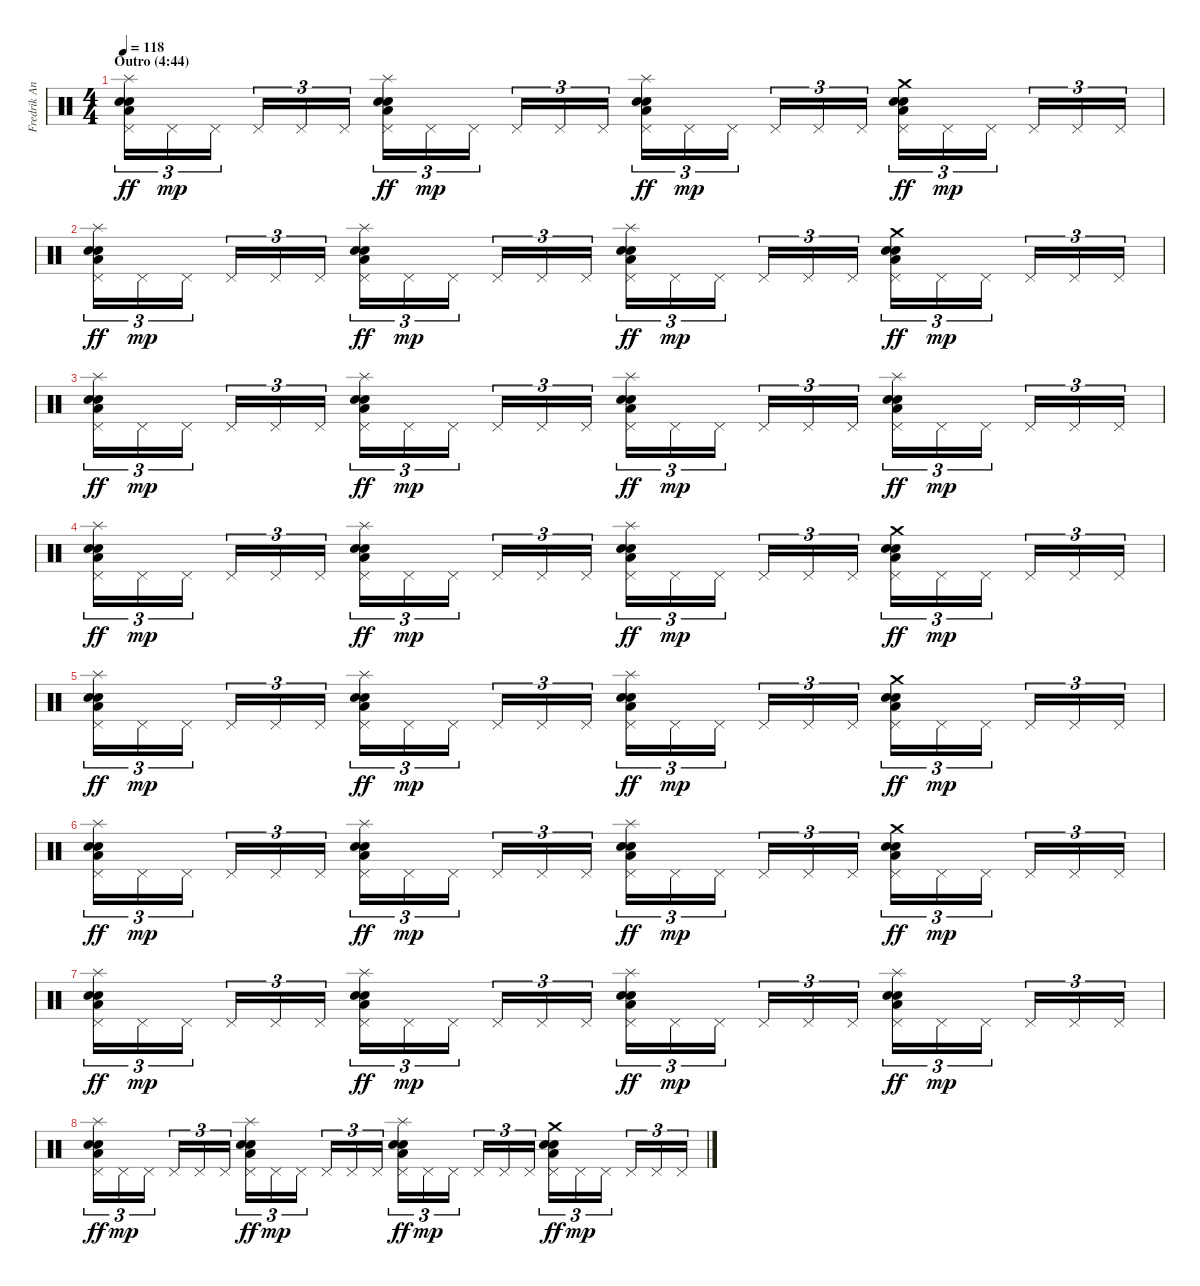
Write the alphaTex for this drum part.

\track ("Fredrik Andersson " "Fredrik An") {instrument percussion}
\staff {score}
\articulation defaults
\ts (4 4)
\section ("" "Outro (4:44)")
\tempo 118
\clef neutral
\ks c
("Splash (hit)" "Pedal Hi-Hat (hit)" "Electric Snare (hit)" "Snare (hit) 2" "Low Floor Tom (hit)").16{tu (3 2) dy ff} "Pedal Hi-Hat (hit)".16{tu (3 2) dy mp} "Pedal Hi-Hat (hit)".16{tu (3 2) beam splitsecondary} "Pedal Hi-Hat (hit)".16{tu (3 2)} "Pedal Hi-Hat (hit)".16{tu (3 2)} "Pedal Hi-Hat (hit)".16{tu (3 2)} ("Splash (hit)" "Pedal Hi-Hat (hit)" "Electric Snare (hit)" "Snare (hit) 2" "Low Floor Tom (hit)").16{tu (3 2) dy ff} "Pedal Hi-Hat (hit)".16{tu (3 2) dy mp} "Pedal Hi-Hat (hit)".16{tu (3 2) beam splitsecondary} "Pedal Hi-Hat (hit)".16{tu (3 2)} "Pedal Hi-Hat (hit)".16{tu (3 2)} "Pedal Hi-Hat (hit)".16{tu (3 2)} ("Splash (hit)" "Pedal Hi-Hat (hit)" "Electric Snare (hit)" "Snare (hit) 2" "Low Floor Tom (hit)").16{tu (3 2) dy ff} "Pedal Hi-Hat (hit)".16{tu (3 2) dy mp} "Pedal Hi-Hat (hit)".16{tu (3 2) beam splitsecondary} "Pedal Hi-Hat (hit)".16{tu (3 2)} "Pedal Hi-Hat (hit)".16{tu (3 2)} "Pedal Hi-Hat (hit)".16{tu (3 2)} ("Crash medium (hit)" "Pedal Hi-Hat (hit)" "Electric Snare (hit)" "Snare (hit) 2" "Low Floor Tom (hit)").16{tu (3 2) dy ff} "Pedal Hi-Hat (hit)".16{tu (3 2) dy mp} "Pedal Hi-Hat (hit)".16{tu (3 2) beam splitsecondary} "Pedal Hi-Hat (hit)".16{tu (3 2)} "Pedal Hi-Hat (hit)".16{tu (3 2)} "Pedal Hi-Hat (hit)".16{tu (3 2)} |
("Splash (hit)" "Pedal Hi-Hat (hit)" "Electric Snare (hit)" "Snare (hit) 2" "Low Floor Tom (hit)").16{tu (3 2) dy ff} "Pedal Hi-Hat (hit)".16{tu (3 2) dy mp} "Pedal Hi-Hat (hit)".16{tu (3 2) beam splitsecondary} "Pedal Hi-Hat (hit)".16{tu (3 2)} "Pedal Hi-Hat (hit)".16{tu (3 2)} "Pedal Hi-Hat (hit)".16{tu (3 2)} ("Splash (hit)" "Pedal Hi-Hat (hit)" "Electric Snare (hit)" "Snare (hit) 2" "Low Floor Tom (hit)").16{tu (3 2) dy ff} "Pedal Hi-Hat (hit)".16{tu (3 2) dy mp} "Pedal Hi-Hat (hit)".16{tu (3 2) beam splitsecondary} "Pedal Hi-Hat (hit)".16{tu (3 2)} "Pedal Hi-Hat (hit)".16{tu (3 2)} "Pedal Hi-Hat (hit)".16{tu (3 2)} ("Splash (hit)" "Pedal Hi-Hat (hit)" "Electric Snare (hit)" "Snare (hit) 2" "Low Floor Tom (hit)").16{tu (3 2) dy ff} "Pedal Hi-Hat (hit)".16{tu (3 2) dy mp} "Pedal Hi-Hat (hit)".16{tu (3 2) beam splitsecondary} "Pedal Hi-Hat (hit)".16{tu (3 2)} "Pedal Hi-Hat (hit)".16{tu (3 2)} "Pedal Hi-Hat (hit)".16{tu (3 2)} ("Crash medium (hit)" "Pedal Hi-Hat (hit)" "Electric Snare (hit)" "Snare (hit) 2" "Low Floor Tom (hit)").16{tu (3 2) dy ff} "Pedal Hi-Hat (hit)".16{tu (3 2) dy mp} "Pedal Hi-Hat (hit)".16{tu (3 2) beam splitsecondary} "Pedal Hi-Hat (hit)".16{tu (3 2)} "Pedal Hi-Hat (hit)".16{tu (3 2)} "Pedal Hi-Hat (hit)".16{tu (3 2)} |
("Splash (hit)" "Pedal Hi-Hat (hit)" "Electric Snare (hit)" "Snare (hit) 2" "Low Floor Tom (hit)").16{tu (3 2) dy ff} "Pedal Hi-Hat (hit)".16{tu (3 2) dy mp} "Pedal Hi-Hat (hit)".16{tu (3 2) beam splitsecondary} "Pedal Hi-Hat (hit)".16{tu (3 2)} "Pedal Hi-Hat (hit)".16{tu (3 2)} "Pedal Hi-Hat (hit)".16{tu (3 2)} ("Splash (hit)" "Pedal Hi-Hat (hit)" "Electric Snare (hit)" "Snare (hit) 2" "Low Floor Tom (hit)").16{tu (3 2) dy ff} "Pedal Hi-Hat (hit)".16{tu (3 2) dy mp} "Pedal Hi-Hat (hit)".16{tu (3 2) beam splitsecondary} "Pedal Hi-Hat (hit)".16{tu (3 2)} "Pedal Hi-Hat (hit)".16{tu (3 2)} "Pedal Hi-Hat (hit)".16{tu (3 2)} ("Splash (hit)" "Pedal Hi-Hat (hit)" "Electric Snare (hit)" "Snare (hit) 2" "Low Floor Tom (hit)").16{tu (3 2) dy ff} "Pedal Hi-Hat (hit)".16{tu (3 2) dy mp} "Pedal Hi-Hat (hit)".16{tu (3 2) beam splitsecondary} "Pedal Hi-Hat (hit)".16{tu (3 2)} "Pedal Hi-Hat (hit)".16{tu (3 2)} "Pedal Hi-Hat (hit)".16{tu (3 2)} ("Splash (hit)" "Pedal Hi-Hat (hit)" "Electric Snare (hit)" "Snare (hit) 2" "Low Floor Tom (hit)").16{tu (3 2) dy ff} "Pedal Hi-Hat (hit)".16{tu (3 2) dy mp} "Pedal Hi-Hat (hit)".16{tu (3 2) beam splitsecondary} "Pedal Hi-Hat (hit)".16{tu (3 2)} "Pedal Hi-Hat (hit)".16{tu (3 2)} "Pedal Hi-Hat (hit)".16{tu (3 2)} |
("Splash (hit)" "Pedal Hi-Hat (hit)" "Electric Snare (hit)" "Snare (hit) 2" "Low Floor Tom (hit)").16{tu (3 2) dy ff} "Pedal Hi-Hat (hit)".16{tu (3 2) dy mp} "Pedal Hi-Hat (hit)".16{tu (3 2) beam splitsecondary} "Pedal Hi-Hat (hit)".16{tu (3 2)} "Pedal Hi-Hat (hit)".16{tu (3 2)} "Pedal Hi-Hat (hit)".16{tu (3 2)} ("Splash (hit)" "Pedal Hi-Hat (hit)" "Electric Snare (hit)" "Snare (hit) 2" "Low Floor Tom (hit)").16{tu (3 2) dy ff} "Pedal Hi-Hat (hit)".16{tu (3 2) dy mp} "Pedal Hi-Hat (hit)".16{tu (3 2) beam splitsecondary} "Pedal Hi-Hat (hit)".16{tu (3 2)} "Pedal Hi-Hat (hit)".16{tu (3 2)} "Pedal Hi-Hat (hit)".16{tu (3 2)} ("Splash (hit)" "Pedal Hi-Hat (hit)" "Electric Snare (hit)" "Snare (hit) 2" "Low Floor Tom (hit)").16{tu (3 2) dy ff} "Pedal Hi-Hat (hit)".16{tu (3 2) dy mp} "Pedal Hi-Hat (hit)".16{tu (3 2) beam splitsecondary} "Pedal Hi-Hat (hit)".16{tu (3 2)} "Pedal Hi-Hat (hit)".16{tu (3 2)} "Pedal Hi-Hat (hit)".16{tu (3 2)} ("Crash medium (hit)" "Pedal Hi-Hat (hit)" "Electric Snare (hit)" "Snare (hit) 2" "Low Floor Tom (hit)").16{tu (3 2) dy ff} "Pedal Hi-Hat (hit)".16{tu (3 2) dy mp} "Pedal Hi-Hat (hit)".16{tu (3 2) beam splitsecondary} "Pedal Hi-Hat (hit)".16{tu (3 2)} "Pedal Hi-Hat (hit)".16{tu (3 2)} "Pedal Hi-Hat (hit)".16{tu (3 2)} |
("Splash (hit)" "Pedal Hi-Hat (hit)" "Electric Snare (hit)" "Snare (hit) 2" "Low Floor Tom (hit)").16{tu (3 2) dy ff} "Pedal Hi-Hat (hit)".16{tu (3 2) dy mp} "Pedal Hi-Hat (hit)".16{tu (3 2) beam splitsecondary} "Pedal Hi-Hat (hit)".16{tu (3 2)} "Pedal Hi-Hat (hit)".16{tu (3 2)} "Pedal Hi-Hat (hit)".16{tu (3 2)} ("Splash (hit)" "Pedal Hi-Hat (hit)" "Electric Snare (hit)" "Snare (hit) 2" "Low Floor Tom (hit)").16{tu (3 2) dy ff} "Pedal Hi-Hat (hit)".16{tu (3 2) dy mp} "Pedal Hi-Hat (hit)".16{tu (3 2) beam splitsecondary} "Pedal Hi-Hat (hit)".16{tu (3 2)} "Pedal Hi-Hat (hit)".16{tu (3 2)} "Pedal Hi-Hat (hit)".16{tu (3 2)} ("Splash (hit)" "Pedal Hi-Hat (hit)" "Electric Snare (hit)" "Snare (hit) 2" "Low Floor Tom (hit)").16{tu (3 2) dy ff} "Pedal Hi-Hat (hit)".16{tu (3 2) dy mp} "Pedal Hi-Hat (hit)".16{tu (3 2) beam splitsecondary} "Pedal Hi-Hat (hit)".16{tu (3 2)} "Pedal Hi-Hat (hit)".16{tu (3 2)} "Pedal Hi-Hat (hit)".16{tu (3 2)} ("Crash medium (hit)" "Pedal Hi-Hat (hit)" "Electric Snare (hit)" "Snare (hit) 2" "Low Floor Tom (hit)").16{tu (3 2) dy ff} "Pedal Hi-Hat (hit)".16{tu (3 2) dy mp} "Pedal Hi-Hat (hit)".16{tu (3 2) beam splitsecondary} "Pedal Hi-Hat (hit)".16{tu (3 2)} "Pedal Hi-Hat (hit)".16{tu (3 2)} "Pedal Hi-Hat (hit)".16{tu (3 2)} |
("Splash (hit)" "Pedal Hi-Hat (hit)" "Electric Snare (hit)" "Snare (hit) 2" "Low Floor Tom (hit)").16{tu (3 2) dy ff} "Pedal Hi-Hat (hit)".16{tu (3 2) dy mp} "Pedal Hi-Hat (hit)".16{tu (3 2) beam splitsecondary} "Pedal Hi-Hat (hit)".16{tu (3 2)} "Pedal Hi-Hat (hit)".16{tu (3 2)} "Pedal Hi-Hat (hit)".16{tu (3 2)} ("Splash (hit)" "Pedal Hi-Hat (hit)" "Electric Snare (hit)" "Snare (hit) 2" "Low Floor Tom (hit)").16{tu (3 2) dy ff} "Pedal Hi-Hat (hit)".16{tu (3 2) dy mp} "Pedal Hi-Hat (hit)".16{tu (3 2) beam splitsecondary} "Pedal Hi-Hat (hit)".16{tu (3 2)} "Pedal Hi-Hat (hit)".16{tu (3 2)} "Pedal Hi-Hat (hit)".16{tu (3 2)} ("Splash (hit)" "Pedal Hi-Hat (hit)" "Electric Snare (hit)" "Snare (hit) 2" "Low Floor Tom (hit)").16{tu (3 2) dy ff} "Pedal Hi-Hat (hit)".16{tu (3 2) dy mp} "Pedal Hi-Hat (hit)".16{tu (3 2) beam splitsecondary} "Pedal Hi-Hat (hit)".16{tu (3 2)} "Pedal Hi-Hat (hit)".16{tu (3 2)} "Pedal Hi-Hat (hit)".16{tu (3 2)} ("Crash medium (hit)" "Pedal Hi-Hat (hit)" "Electric Snare (hit)" "Snare (hit) 2" "Low Floor Tom (hit)").16{tu (3 2) dy ff} "Pedal Hi-Hat (hit)".16{tu (3 2) dy mp} "Pedal Hi-Hat (hit)".16{tu (3 2) beam splitsecondary} "Pedal Hi-Hat (hit)".16{tu (3 2)} "Pedal Hi-Hat (hit)".16{tu (3 2)} "Pedal Hi-Hat (hit)".16{tu (3 2)} |
("Splash (hit)" "Pedal Hi-Hat (hit)" "Electric Snare (hit)" "Snare (hit) 2" "Low Floor Tom (hit)").16{tu (3 2) dy ff} "Pedal Hi-Hat (hit)".16{tu (3 2) dy mp} "Pedal Hi-Hat (hit)".16{tu (3 2) beam splitsecondary} "Pedal Hi-Hat (hit)".16{tu (3 2)} "Pedal Hi-Hat (hit)".16{tu (3 2)} "Pedal Hi-Hat (hit)".16{tu (3 2)} ("Splash (hit)" "Pedal Hi-Hat (hit)" "Electric Snare (hit)" "Snare (hit) 2" "Low Floor Tom (hit)").16{tu (3 2) dy ff} "Pedal Hi-Hat (hit)".16{tu (3 2) dy mp} "Pedal Hi-Hat (hit)".16{tu (3 2) beam splitsecondary} "Pedal Hi-Hat (hit)".16{tu (3 2)} "Pedal Hi-Hat (hit)".16{tu (3 2)} "Pedal Hi-Hat (hit)".16{tu (3 2)} ("Splash (hit)" "Pedal Hi-Hat (hit)" "Electric Snare (hit)" "Snare (hit) 2" "Low Floor Tom (hit)").16{tu (3 2) dy ff} "Pedal Hi-Hat (hit)".16{tu (3 2) dy mp} "Pedal Hi-Hat (hit)".16{tu (3 2) beam splitsecondary} "Pedal Hi-Hat (hit)".16{tu (3 2)} "Pedal Hi-Hat (hit)".16{tu (3 2)} "Pedal Hi-Hat (hit)".16{tu (3 2)} ("Splash (hit)" "Pedal Hi-Hat (hit)" "Electric Snare (hit)" "Snare (hit) 2" "Low Floor Tom (hit)").16{tu (3 2) dy ff} "Pedal Hi-Hat (hit)".16{tu (3 2) dy mp} "Pedal Hi-Hat (hit)".16{tu (3 2) beam splitsecondary} "Pedal Hi-Hat (hit)".16{tu (3 2)} "Pedal Hi-Hat (hit)".16{tu (3 2)} "Pedal Hi-Hat (hit)".16{tu (3 2)} |
("Splash (hit)" "Pedal Hi-Hat (hit)" "Electric Snare (hit)" "Snare (hit) 2" "Low Floor Tom (hit)").16{tu (3 2) dy ff} "Pedal Hi-Hat (hit)".16{tu (3 2) dy mp} "Pedal Hi-Hat (hit)".16{tu (3 2) beam splitsecondary} "Pedal Hi-Hat (hit)".16{tu (3 2)} "Pedal Hi-Hat (hit)".16{tu (3 2)} "Pedal Hi-Hat (hit)".16{tu (3 2)} ("Splash (hit)" "Pedal Hi-Hat (hit)" "Electric Snare (hit)" "Snare (hit) 2" "Low Floor Tom (hit)").16{tu (3 2) dy ff} "Pedal Hi-Hat (hit)".16{tu (3 2) dy mp} "Pedal Hi-Hat (hit)".16{tu (3 2) beam splitsecondary} "Pedal Hi-Hat (hit)".16{tu (3 2)} "Pedal Hi-Hat (hit)".16{tu (3 2)} "Pedal Hi-Hat (hit)".16{tu (3 2)} ("Splash (hit)" "Pedal Hi-Hat (hit)" "Electric Snare (hit)" "Snare (hit) 2" "Low Floor Tom (hit)").16{tu (3 2) dy ff} "Pedal Hi-Hat (hit)".16{tu (3 2) dy mp} "Pedal Hi-Hat (hit)".16{tu (3 2) beam splitsecondary} "Pedal Hi-Hat (hit)".16{tu (3 2)} "Pedal Hi-Hat (hit)".16{tu (3 2)} "Pedal Hi-Hat (hit)".16{tu (3 2)} ("Crash medium (hit)" "Pedal Hi-Hat (hit)" "Electric Snare (hit)" "Snare (hit) 2" "Low Floor Tom (hit)").16{tu (3 2) dy ff} "Pedal Hi-Hat (hit)".16{tu (3 2) dy mp} "Pedal Hi-Hat (hit)".16{tu (3 2) beam splitsecondary} "Pedal Hi-Hat (hit)".16{tu (3 2)} "Pedal Hi-Hat (hit)".16{tu (3 2)} "Pedal Hi-Hat (hit)".16{tu (3 2)}
